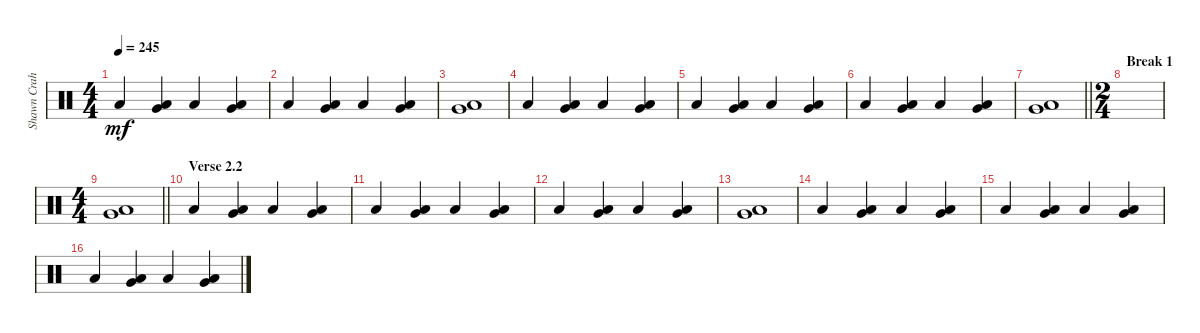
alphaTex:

\track ("Shawn Crahan" "Shawn Crah") {instrument percussion}
\staff {score}
\articulation defaults
\ts (4 4)
\tempo 245
\clef neutral
\ks c "Low Floor Tom (hit)".4{dy mf}
("Very Low Tom (hit)" "Low Floor Tom (hit)").4 "Low Floor Tom (hit)".4 ("Very Low Tom (hit)" "Low Floor Tom (hit)").4 |
"Low Floor Tom (hit)".4 ("Very Low Tom (hit)" "Low Floor Tom (hit)").4 "Low Floor Tom (hit)".4 ("Very Low Tom (hit)" "Low Floor Tom (hit)").4 |
("Very Low Tom (hit)" "Low Floor Tom (hit)").1 |
"Low Floor Tom (hit)".4 ("Very Low Tom (hit)" "Low Floor Tom (hit)").4 "Low Floor Tom (hit)".4 ("Very Low Tom (hit)" "Low Floor Tom (hit)").4 |
"Low Floor Tom (hit)".4 ("Very Low Tom (hit)" "Low Floor Tom (hit)").4 "Low Floor Tom (hit)".4 ("Very Low Tom (hit)" "Low Floor Tom (hit)").4 |
"Low Floor Tom (hit)".4 ("Very Low Tom (hit)" "Low Floor Tom (hit)").4 "Low Floor Tom (hit)".4 ("Very Low Tom (hit)" "Low Floor Tom (hit)").4 |
\barLineRight lightlight
("Very Low Tom (hit)" "Low Floor Tom (hit)").1 |
\ts (2 4)
\section ("" "Break 1")
|
\ts (4 4)
\barLineRight lightlight
("Very Low Tom (hit)" "Low Floor Tom (hit)").1 |
\section ("" "Verse 2.2")
"Low Floor Tom (hit)".4 ("Very Low Tom (hit)" "Low Floor Tom (hit)").4 "Low Floor Tom (hit)".4 ("Very Low Tom (hit)" "Low Floor Tom (hit)").4 |
"Low Floor Tom (hit)".4 ("Very Low Tom (hit)" "Low Floor Tom (hit)").4 "Low Floor Tom (hit)".4 ("Very Low Tom (hit)" "Low Floor Tom (hit)").4 |
"Low Floor Tom (hit)".4 ("Very Low Tom (hit)" "Low Floor Tom (hit)").4 "Low Floor Tom (hit)".4 ("Very Low Tom (hit)" "Low Floor Tom (hit)").4 |
("Very Low Tom (hit)" "Low Floor Tom (hit)").1 |
"Low Floor Tom (hit)".4 ("Very Low Tom (hit)" "Low Floor Tom (hit)").4 "Low Floor Tom (hit)".4 ("Very Low Tom (hit)" "Low Floor Tom (hit)").4 |
"Low Floor Tom (hit)".4 ("Very Low Tom (hit)" "Low Floor Tom (hit)").4 "Low Floor Tom (hit)".4 ("Very Low Tom (hit)" "Low Floor Tom (hit)").4 |
"Low Floor Tom (hit)".4 ("Very Low Tom (hit)" "Low Floor Tom (hit)").4 "Low Floor Tom (hit)".4 ("Very Low Tom (hit)" "Low Floor Tom (hit)").4
